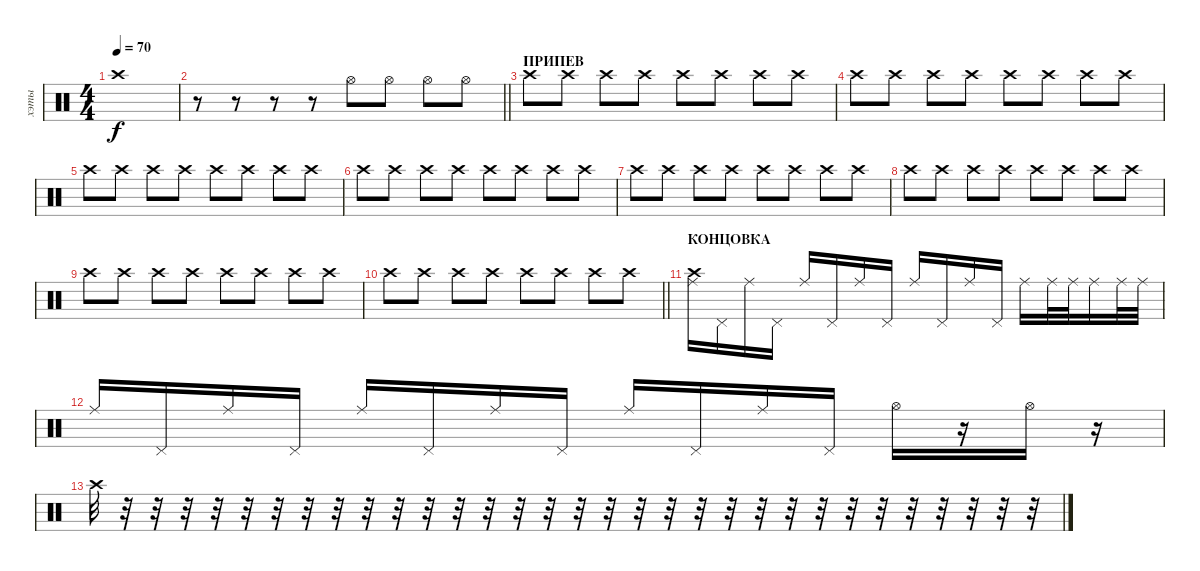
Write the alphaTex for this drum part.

\track ("хэты" "хэты") {instrument percussion}
\staff {score}
\articulation defaults
\ts (4 4)
\tempo 70
\clef neutral
\ks c "Crash high (hit)".1{dy f}
|
\barLineRight lightlight
r.8 r.8 r.8 r.8 "Hi-Hat (open)".8 "Hi-Hat (open)".8 "Hi-Hat (open)".8 "Hi-Hat (open)".8 |
\section ("" "ПРИПЕВ")
"Crash high (hit)".8 "Crash high (hit)".8 "Crash high (hit)".8 "Crash high (hit)".8 "Crash high (hit)".8 "Crash high (hit)".8 "Crash high (hit)".8 "Crash high (hit)".8 |
"Crash high (hit)".8 "Crash high (hit)".8 "Crash high (hit)".8 "Crash high (hit)".8 "Crash high (hit)".8 "Crash high (hit)".8 "Crash high (hit)".8 "Crash high (hit)".8 |
"Crash high (hit)".8 "Crash high (hit)".8 "Crash high (hit)".8 "Crash high (hit)".8 "Crash high (hit)".8 "Crash high (hit)".8 "Crash high (hit)".8 "Crash high (hit)".8 |
"Crash high (hit)".8 "Crash high (hit)".8 "Crash high (hit)".8 "Crash high (hit)".8 "Crash high (hit)".8 "Crash high (hit)".8 "Crash high (hit)".8 "Crash high (hit)".8 |
"Crash high (hit)".8 "Crash high (hit)".8 "Crash high (hit)".8 "Crash high (hit)".8 "Crash high (hit)".8 "Crash high (hit)".8 "Crash high (hit)".8 "Crash high (hit)".8 |
"Crash high (hit)".8 "Crash high (hit)".8 "Crash high (hit)".8 "Crash high (hit)".8 "Crash high (hit)".8 "Crash high (hit)".8 "Crash high (hit)".8 "Crash high (hit)".8 |
"Crash high (hit)".8 "Crash high (hit)".8 "Crash high (hit)".8 "Crash high (hit)".8 "Crash high (hit)".8 "Crash high (hit)".8 "Crash high (hit)".8 "Crash high (hit)".8 |
\barLineRight lightlight "Crash high (hit)".8 "Crash high (hit)".8 "Crash high (hit)".8 "Crash high (hit)".8 "Crash high (hit)".8 "Crash high (hit)".8 "Crash high (hit)".8 "Crash high (hit)".8
|
\section ("" "КОНЦОВКА")
("Ride (middle)" "Crash high (hit)").16 "Pedal Hi-Hat (hit)".16 "Ride (middle)".16 "Pedal Hi-Hat (hit)".16 "Ride (middle)".16 "Pedal Hi-Hat (hit)".16 "Ride (middle)".16 "Pedal Hi-Hat (hit)".16 "Ride (middle)".16 "Pedal Hi-Hat (hit)".16 "Ride (middle)".16 "Pedal Hi-Hat (hit)".16 "Ride (middle)".16 "Ride (middle)".32 "Ride (middle)".32 "Ride (middle)".16 "Ride (middle)".32 "Ride (middle)".32 |
"Ride (middle)".16 "Pedal Hi-Hat (hit)".16 "Ride (middle)".16 "Pedal Hi-Hat (hit)".16 "Ride (middle)".16 "Pedal Hi-Hat (hit)".16 "Ride (middle)".16 "Pedal Hi-Hat (hit)".16 "Ride (middle)".16 "Pedal Hi-Hat (hit)".16 "Ride (middle)".16 "Pedal Hi-Hat (hit)".16 "Hi-Hat (open)".16 r.16 "Hi-Hat (open)".16 r.16 |
"Crash high (hit)".32 r.32 r.32 r.32 r.32 r.32 r.32 r.32 r.32 r.32 r.32 r.32 r.32 r.32 r.32 r.32 r.32 r.32 r.32 r.32 r.32 r.32 r.32 r.32 r.32 r.32 r.32 r.32 r.32 r.32 r.32 r.32
